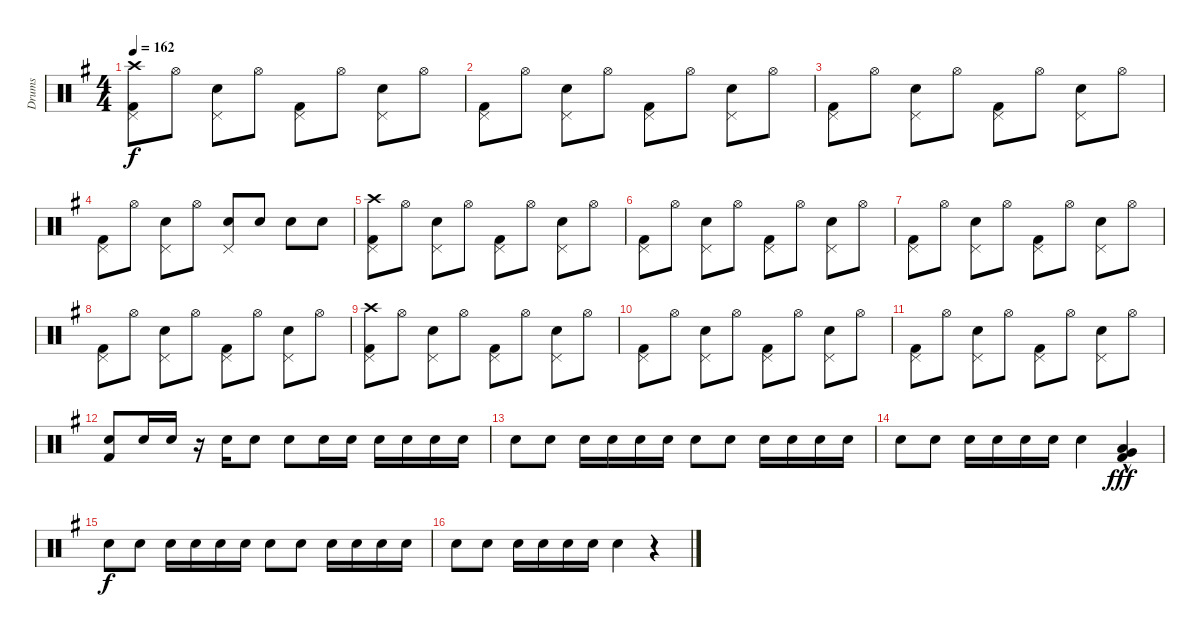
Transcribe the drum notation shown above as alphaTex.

\track ("Drums" "Drums") {instrument percussion}
\staff {score}
\articulation defaults
\ts (4 4)
\tempo 162
\clef neutral
\ks g
("Crash high (hit)" "Pedal Hi-Hat (hit)" "Kick (hit) 2").8{dy f} "Hi-Hat (open)".8 ("Electric Snare (hit)" "Pedal Hi-Hat (hit)").8 "Hi-Hat (open)".8 ("Pedal Hi-Hat (hit)" "Kick (hit) 2").8 "Hi-Hat (open)".8 ("Electric Snare (hit)" "Pedal Hi-Hat (hit)").8 "Hi-Hat (open)".8 |
("Pedal Hi-Hat (hit)" "Kick (hit) 2").8 "Hi-Hat (open)".8 ("Electric Snare (hit)" "Pedal Hi-Hat (hit)").8 "Hi-Hat (open)".8 ("Pedal Hi-Hat (hit)" "Kick (hit) 2").8 "Hi-Hat (open)".8 ("Electric Snare (hit)" "Pedal Hi-Hat (hit)").8 "Hi-Hat (open)".8 |
("Pedal Hi-Hat (hit)" "Kick (hit) 2").8 "Hi-Hat (open)".8 ("Electric Snare (hit)" "Pedal Hi-Hat (hit)").8 "Hi-Hat (open)".8 ("Pedal Hi-Hat (hit)" "Kick (hit) 2").8 "Hi-Hat (open)".8 ("Electric Snare (hit)" "Pedal Hi-Hat (hit)").8 "Hi-Hat (open)".8 |
("Pedal Hi-Hat (hit)" "Kick (hit) 2").8 "Hi-Hat (open)".8 ("Electric Snare (hit)" "Pedal Hi-Hat (hit)").8 "Hi-Hat (open)".8 ("Electric Snare (hit)" "Pedal Hi-Hat (hit)").8 "Electric Snare (hit)".8 "Electric Snare (hit)".8 "Electric Snare (hit)".8 |
("Crash high (hit)" "Pedal Hi-Hat (hit)" "Kick (hit) 2").8 "Hi-Hat (open)".8 ("Electric Snare (hit)" "Pedal Hi-Hat (hit)").8 "Hi-Hat (open)".8 ("Pedal Hi-Hat (hit)" "Kick (hit) 2").8 "Hi-Hat (open)".8 ("Electric Snare (hit)" "Pedal Hi-Hat (hit)").8 "Hi-Hat (open)".8 |
("Pedal Hi-Hat (hit)" "Kick (hit) 2").8 "Hi-Hat (open)".8 ("Electric Snare (hit)" "Pedal Hi-Hat (hit)").8 "Hi-Hat (open)".8 ("Pedal Hi-Hat (hit)" "Kick (hit) 2").8 "Hi-Hat (open)".8 ("Electric Snare (hit)" "Pedal Hi-Hat (hit)").8 "Hi-Hat (open)".8 |
("Pedal Hi-Hat (hit)" "Kick (hit) 2").8 "Hi-Hat (open)".8 ("Electric Snare (hit)" "Pedal Hi-Hat (hit)").8 "Hi-Hat (open)".8 ("Pedal Hi-Hat (hit)" "Kick (hit) 2").8 "Hi-Hat (open)".8 ("Electric Snare (hit)" "Pedal Hi-Hat (hit)").8 "Hi-Hat (open)".8 |
("Pedal Hi-Hat (hit)" "Kick (hit) 2").8 "Hi-Hat (open)".8 ("Electric Snare (hit)" "Pedal Hi-Hat (hit)").8 "Hi-Hat (open)".8 ("Pedal Hi-Hat (hit)" "Kick (hit) 2").8 "Hi-Hat (open)".8 ("Electric Snare (hit)" "Pedal Hi-Hat (hit)").8 "Hi-Hat (open)".8 |
("Crash high (hit)" "Pedal Hi-Hat (hit)" "Kick (hit) 2").8 "Hi-Hat (open)".8 ("Electric Snare (hit)" "Pedal Hi-Hat (hit)").8 "Hi-Hat (open)".8 ("Pedal Hi-Hat (hit)" "Kick (hit) 2").8 "Hi-Hat (open)".8 ("Electric Snare (hit)" "Pedal Hi-Hat (hit)").8 "Hi-Hat (open)".8 |
("Pedal Hi-Hat (hit)" "Kick (hit) 2").8 "Hi-Hat (open)".8 ("Electric Snare (hit)" "Pedal Hi-Hat (hit)").8 "Hi-Hat (open)".8 ("Pedal Hi-Hat (hit)" "Kick (hit) 2").8 "Hi-Hat (open)".8 ("Electric Snare (hit)" "Pedal Hi-Hat (hit)").8 "Hi-Hat (open)".8 |
("Pedal Hi-Hat (hit)" "Kick (hit) 2").8 "Hi-Hat (open)".8 ("Electric Snare (hit)" "Pedal Hi-Hat (hit)").8 "Hi-Hat (open)".8 ("Pedal Hi-Hat (hit)" "Kick (hit) 2").8 "Hi-Hat (open)".8 ("Electric Snare (hit)" "Pedal Hi-Hat (hit)").8 "Hi-Hat (open)".8 |
("Kick (hit) 2" "Electric Snare (hit)").8 "Electric Snare (hit)".16 "Electric Snare (hit)".16 r.16 "Electric Snare (hit)".16 "Electric Snare (hit)".8 "Electric Snare (hit)".8 "Electric Snare (hit)".16 "Electric Snare (hit)".16 "Electric Snare (hit)".16 "Electric Snare (hit)".16 "Electric Snare (hit)".16 "Electric Snare (hit)".16 |
"Electric Snare (hit)".8 "Electric Snare (hit)".8 "Electric Snare (hit)".16 "Electric Snare (hit)".16 "Electric Snare (hit)".16 "Electric Snare (hit)".16 "Electric Snare (hit)".8 "Electric Snare (hit)".8 "Electric Snare (hit)".16 "Electric Snare (hit)".16 "Electric Snare (hit)".16 "Electric Snare (hit)".16 |
"Electric Snare (hit)".8 "Electric Snare (hit)".8 "Electric Snare (hit)".16 "Electric Snare (hit)".16 "Electric Snare (hit)".16 "Electric Snare (hit)".16 "Electric Snare (hit)".4 ("Low Tom (hit)"{hac} "Very Low Tom (hit)"{hac} "Kick (hit) 2"{hac}).4{dy fff} |
"Electric Snare (hit)".8{dy f} "Electric Snare (hit)".8 "Electric Snare (hit)".16 "Electric Snare (hit)".16 "Electric Snare (hit)".16 "Electric Snare (hit)".16 "Electric Snare (hit)".8 "Electric Snare (hit)".8 "Electric Snare (hit)".16 "Electric Snare (hit)".16 "Electric Snare (hit)".16 "Electric Snare (hit)".16 |
"Electric Snare (hit)".8 "Electric Snare (hit)".8 "Electric Snare (hit)".16 "Electric Snare (hit)".16 "Electric Snare (hit)".16 "Electric Snare (hit)".16 "Electric Snare (hit)".4 r.4
